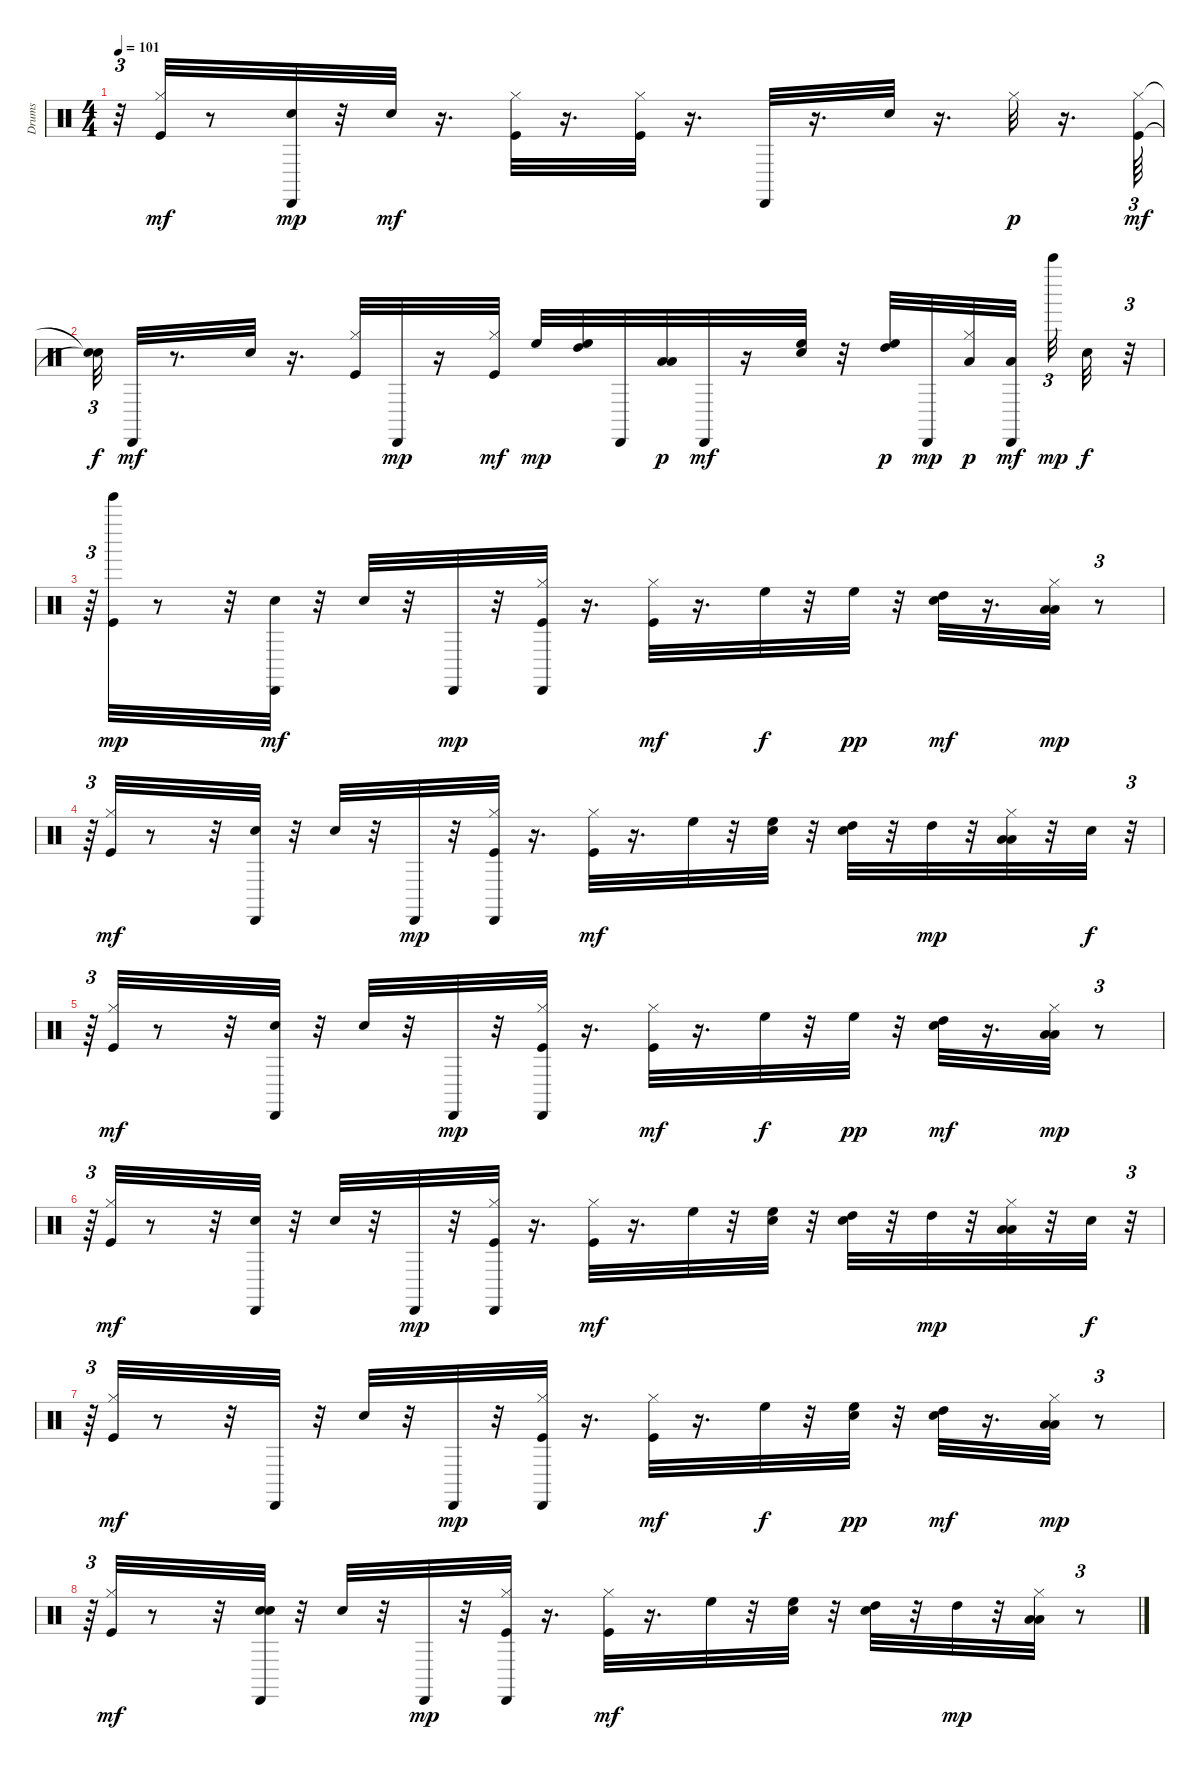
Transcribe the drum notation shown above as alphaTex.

\track ("Drums" "Drums") {instrument percussion}
\staff {score}
\articulation defaults
\ts (4 4)
\tempo 101
\clef neutral
\ks c
r.32{tu (3 2) dy mp} ("Kick (hit)" "Hi-Hat (closed)").32{dy mf} r.8 ("Hand Clap (hit)" "Cabasa (hit)").32{dy mp} r.32 "Snare (hit) 2".32{dy mf} r.16{d} ("Kick (hit)" "Hi-Hat (closed)").32 r.16{d} ("Kick (hit)" "Hi-Hat (closed)").32 r.16{d} "Cabasa (hit)".32 r.16{d} "Snare (hit) 2".32 r.16{d} "Hi-Hat (closed)".32{dy p} r.16{d} ("Kick (hit)" "Hi-Hat (closed)").64{tu (3 2) dy mf} |
("Snare (hit)"{t} "Snare (hit)"{t}).32{tu (3 2) dy f} "Cabasa (hit)".32{dy mf} r.8{d} "Snare (hit) 2".32 r.16{d} ("Kick (hit)" "Hi-Hat (closed)").32 "Cabasa (hit)".32{dy mp} r.16 ("Kick (hit)" "Hi-Hat (closed)").32{dy mf} "High Floor Tom (hit)".32{dy mp} ("High Tom (hit)" "High Floor Tom (hit)").32 "Cabasa (hit)".32 ("Low Floor Tom (hit)" "Low Tom (hit)").32{dy p} "Cabasa (hit)".32{dy mf} r.16 ("Snare (hit) 2" "High Floor Tom (hit)").32 r.32 ("High Tom (hit)" "High Floor Tom (hit)").32{dy p} "Cabasa (hit)".32{dy mp} ("Low Floor Tom (hit)" "Hi-Hat (closed)").32{dy p} ("Low Tom (hit)" "Cabasa (hit)").32{dy mf beam splitsecondary} "Bell Tree (hit)".32{tu (3 2) dy mp} "Hand Clap (hit)".32{dy f} r.32{tu (3 2)} |
r.64{tu (3 2)} ("Kick (hit)" "Tinkle Bell (hit)").32{dy mp} r.8 r.32 ("Hand Clap (hit)" "Cabasa (hit)").32{dy mf} r.32 "Snare (hit) 2".32 r.32 "Cabasa (hit)".32{dy mp} r.32 ("Kick (hit)" "Hi-Hat (closed)" "Cabasa (hit)").32 r.16{d} ("Kick (hit)" "Hi-Hat (closed)").32{dy mf} r.16{d} "High Floor Tom (hit)".32{dy f} r.32 "High Floor Tom (hit)".32{dy pp} r.32 ("Snare (hit) 2" "High Tom (hit)").32{dy mf} r.16{d} ("Low Floor Tom (hit)" "Hi-Hat (closed)" "Low Tom (hit)").32{dy mp} r.8{tu (3 2)} |
r.64{tu (3 2)} ("Kick (hit)" "Hi-Hat (closed)").32{dy mf} r.8 r.32 ("Hand Clap (hit)" "Cabasa (hit)").32 r.32 "Snare (hit) 2".32 r.32 "Cabasa (hit)".32{dy mp} r.32 ("Kick (hit)" "Hi-Hat (closed)" "Cabasa (hit)").32 r.16{d} ("Kick (hit)" "Hi-Hat (closed)").32{dy mf} r.16{d} "High Floor Tom (hit)".32 r.32 ("Hand Clap (hit)" "High Floor Tom (hit)").32 r.32 ("Snare (hit) 2" "High Tom (hit)").32 r.32 "High Tom (hit)".32{dy mp} r.32 ("Low Floor Tom (hit)" "Hi-Hat (closed)" "Low Tom (hit)").32 r.32 "Hand Clap (hit)".32{dy f} r.32{tu (3 2)} |
r.64{tu (3 2)} ("Kick (hit)" "Hi-Hat (closed)").32{dy mf} r.8 r.32 ("Hand Clap (hit)" "Cabasa (hit)").32 r.32 "Snare (hit) 2".32 r.32 "Cabasa (hit)".32{dy mp} r.32 ("Kick (hit)" "Hi-Hat (closed)" "Cabasa (hit)").32 r.16{d} ("Kick (hit)" "Hi-Hat (closed)").32{dy mf} r.16{d} "High Floor Tom (hit)".32{dy f} r.32 "High Floor Tom (hit)".32{dy pp} r.32 ("Snare (hit) 2" "High Tom (hit)").32{dy mf} r.16{d} ("Low Floor Tom (hit)" "Hi-Hat (closed)" "Low Tom (hit)").32{dy mp} r.8{tu (3 2)} |
r.64{tu (3 2)} ("Kick (hit)" "Hi-Hat (closed)").32{dy mf} r.8 r.32 ("Hand Clap (hit)" "Cabasa (hit)").32 r.32 "Snare (hit) 2".32 r.32 "Cabasa (hit)".32{dy mp} r.32 ("Kick (hit)" "Hi-Hat (closed)" "Cabasa (hit)").32 r.16{d} ("Kick (hit)" "Hi-Hat (closed)").32{dy mf} r.16{d} "High Floor Tom (hit)".32 r.32 ("Hand Clap (hit)" "High Floor Tom (hit)").32 r.32 ("Snare (hit) 2" "High Tom (hit)").32 r.32 "High Tom (hit)".32{dy mp} r.32 ("Low Floor Tom (hit)" "Hi-Hat (closed)" "Low Tom (hit)").32 r.32 "Hand Clap (hit)".32{dy f} r.32{tu (3 2)} |
r.64{tu (3 2)} ("Kick (hit)" "Hi-Hat (closed)").32{dy mf} r.8 r.32 "Cabasa (hit)".32 r.32 "Snare (hit) 2".32 r.32 "Cabasa (hit)".32{dy mp} r.32 ("Kick (hit)" "Hi-Hat (closed)" "Cabasa (hit)").32 r.16{d} ("Kick (hit)" "Hi-Hat (closed)").32{dy mf} r.16{d} "High Floor Tom (hit)".32{dy f} r.32 ("Hand Clap (hit)" "High Floor Tom (hit)").32{dy pp} r.32 ("Snare (hit) 2" "High Tom (hit)").32{dy mf} r.16{d} ("Low Floor Tom (hit)" "Hi-Hat (closed)" "Low Tom (hit)").32{dy mp} r.8{tu (3 2)} |
r.64{tu (3 2)} ("Kick (hit)" "Hi-Hat (closed)").32{dy mf} r.8 r.32 ("Hand Clap (hit)" "Hand Clap (hit)" "Cabasa (hit)").32 r.32 "Snare (hit) 2".32 r.32 "Cabasa (hit)".32{dy mp} r.32 ("Kick (hit)" "Hi-Hat (closed)" "Cabasa (hit)").32 r.16{d} ("Kick (hit)" "Hi-Hat (closed)").32{dy mf} r.16{d} "High Floor Tom (hit)".32 r.32 ("Hand Clap (hit)" "High Floor Tom (hit)").32 r.32 ("Snare (hit) 2" "High Tom (hit)").32 r.32 "High Tom (hit)".32{dy mp} r.32 ("Low Floor Tom (hit)" "Hi-Hat (closed)" "Low Tom (hit)").32 r.8{tu (3 2)}
